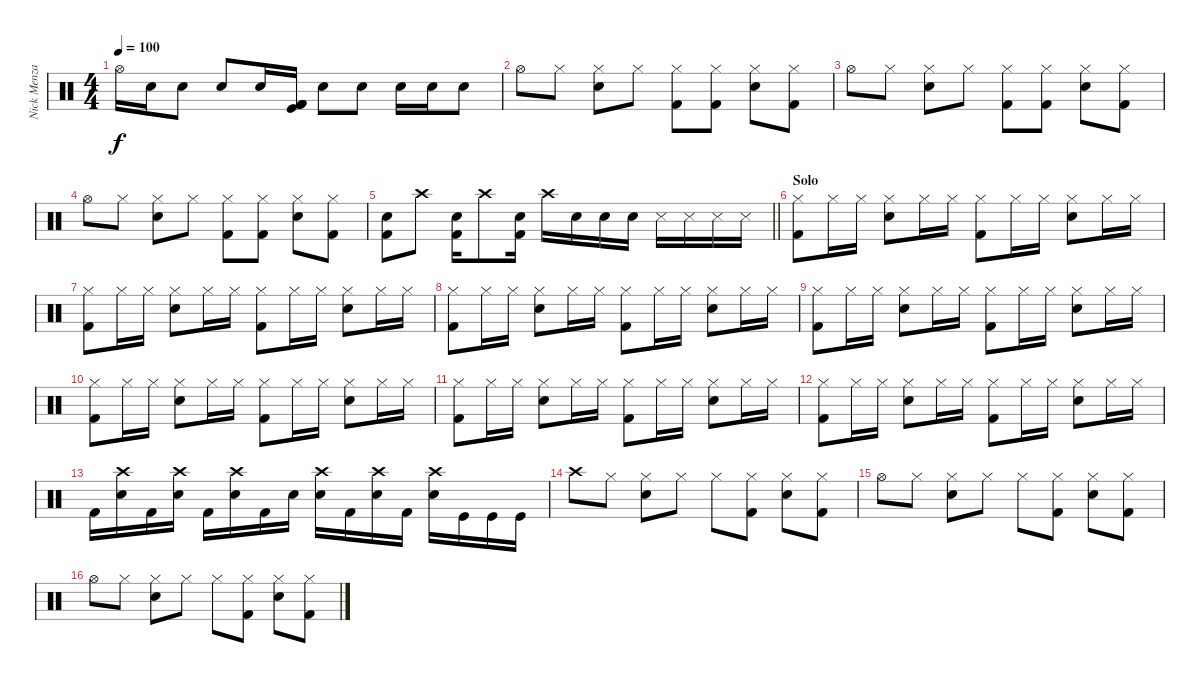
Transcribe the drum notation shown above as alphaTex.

\track ("Nick Menza" "Nick Menza") {instrument percussion}
\staff {score}
\articulation defaults
\ts (4 4)
\tempo 100
\clef neutral
\ks c "Hi-Hat (open)".16{dy f} "Snare (hit) 2".16 "Snare (hit) 2".8 "Snare (hit) 2".8 "Snare (hit) 2".16
("Kick (hit)" "Kick (hit) 2" "Kick (hit) 2" "Kick (hit) 2").16 "Snare (hit) 2".8 "Snare (hit) 2".8 "Snare (hit) 2".16 "Snare (hit) 2".16 "Snare (hit) 2".8 |
"Hi-Hat (open)".8 "Hi-Hat (closed)".8 ("Hi-Hat (closed)" "Snare (hit) 2").8 "Hi-Hat (closed)".8 ("Hi-Hat (closed)" "Kick (hit) 2").8 ("Hi-Hat (closed)" "Kick (hit) 2").8 ("Hi-Hat (closed)" "Snare (hit) 2").8 ("Hi-Hat (closed)" "Kick (hit) 2").8 |
"Hi-Hat (open)".8 "Hi-Hat (closed)".8 ("Hi-Hat (closed)" "Snare (hit) 2").8 "Hi-Hat (closed)".8 ("Hi-Hat (closed)" "Kick (hit) 2").8 ("Hi-Hat (closed)" "Kick (hit) 2").8 ("Hi-Hat (closed)" "Snare (hit) 2").8 ("Hi-Hat (closed)" "Kick (hit) 2").8 |
"Hi-Hat (open)".8 "Hi-Hat (closed)".8 ("Hi-Hat (closed)" "Snare (hit) 2").8 "Hi-Hat (closed)".8 ("Hi-Hat (closed)" "Kick (hit) 2").8 ("Hi-Hat (closed)" "Kick (hit) 2").8 ("Hi-Hat (closed)" "Snare (hit) 2").8 ("Hi-Hat (closed)" "Kick (hit) 2").8 |
\barLineRight lightlight
("Snare (hit) 2" "Kick (hit) 2").8 "Crash high (hit)".8 ("Snare (hit) 2" "Kick (hit) 2").16 "Crash high (hit)".8 ("Snare (hit) 2" "Kick (hit) 2").16 "Crash high (hit)".16 "Snare (hit) 2".16 "Snare (hit) 2".16 "Snare (hit) 2".16 "Snare (side stick) 3".16 "Snare (side stick) 3".16 "Snare (side stick) 3".16 "Snare (side stick) 3".16 |
\section ("" "Solo")
("Hi-Hat (closed)" "Kick (hit) 2").8 "Hi-Hat (closed)".16 "Hi-Hat (closed)".16 ("Hi-Hat (closed)" "Snare (hit) 2").8 "Hi-Hat (closed)".16 "Hi-Hat (closed)".16 ("Hi-Hat (closed)" "Kick (hit) 2").8 "Hi-Hat (closed)".16 "Hi-Hat (closed)".16 ("Hi-Hat (closed)" "Snare (hit) 2").8 "Hi-Hat (closed)".16 "Hi-Hat (closed)".16 |
("Hi-Hat (closed)" "Kick (hit) 2").8 "Hi-Hat (closed)".16 "Hi-Hat (closed)".16 ("Hi-Hat (closed)" "Snare (hit) 2").8 "Hi-Hat (closed)".16 "Hi-Hat (closed)".16 ("Hi-Hat (closed)" "Kick (hit) 2").8 "Hi-Hat (closed)".16 "Hi-Hat (closed)".16 ("Hi-Hat (closed)" "Snare (hit) 2").8 "Hi-Hat (closed)".16 "Hi-Hat (closed)".16 |
("Hi-Hat (closed)" "Kick (hit) 2").8 "Hi-Hat (closed)".16 "Hi-Hat (closed)".16 ("Hi-Hat (closed)" "Snare (hit) 2").8 "Hi-Hat (closed)".16 "Hi-Hat (closed)".16 ("Hi-Hat (closed)" "Kick (hit) 2").8 "Hi-Hat (closed)".16 "Hi-Hat (closed)".16 ("Hi-Hat (closed)" "Snare (hit) 2").8 "Hi-Hat (closed)".16 "Hi-Hat (closed)".16 |
("Hi-Hat (closed)" "Kick (hit) 2").8 "Hi-Hat (closed)".16 "Hi-Hat (closed)".16 ("Hi-Hat (closed)" "Snare (hit) 2").8 "Hi-Hat (closed)".16 "Hi-Hat (closed)".16 ("Hi-Hat (closed)" "Kick (hit) 2").8 "Hi-Hat (closed)".16 "Hi-Hat (closed)".16 ("Hi-Hat (closed)" "Snare (hit) 2").8 "Hi-Hat (closed)".16 "Hi-Hat (closed)".16 |
("Hi-Hat (closed)" "Kick (hit) 2").8 "Hi-Hat (closed)".16 "Hi-Hat (closed)".16 ("Hi-Hat (closed)" "Snare (hit) 2").8 "Hi-Hat (closed)".16 "Hi-Hat (closed)".16 ("Hi-Hat (closed)" "Kick (hit) 2").8 "Hi-Hat (closed)".16 "Hi-Hat (closed)".16 ("Hi-Hat (closed)" "Snare (hit) 2").8 "Hi-Hat (closed)".16 "Hi-Hat (closed)".16 |
("Hi-Hat (closed)" "Kick (hit) 2").8 "Hi-Hat (closed)".16 "Hi-Hat (closed)".16 ("Hi-Hat (closed)" "Snare (hit) 2").8 "Hi-Hat (closed)".16 "Hi-Hat (closed)".16 ("Hi-Hat (closed)" "Kick (hit) 2").8 "Hi-Hat (closed)".16 "Hi-Hat (closed)".16 ("Hi-Hat (closed)" "Snare (hit) 2").8 "Hi-Hat (closed)".16 "Hi-Hat (closed)".16 |
("Hi-Hat (closed)" "Kick (hit) 2").8 "Hi-Hat (closed)".16 "Hi-Hat (closed)".16 ("Hi-Hat (closed)" "Snare (hit) 2").8 "Hi-Hat (closed)".16 "Hi-Hat (closed)".16 ("Hi-Hat (closed)" "Kick (hit) 2").8 "Hi-Hat (closed)".16 "Hi-Hat (closed)".16 ("Hi-Hat (closed)" "Snare (hit) 2").8 "Hi-Hat (closed)".16 "Hi-Hat (closed)".16 |
"Kick (hit) 2".16 ("Crash high (hit)" "Snare (hit) 2").16 "Kick (hit) 2".16 ("Crash high (hit)" "Snare (hit) 2").16 "Kick (hit) 2".16 ("Crash high (hit)" "Snare (hit) 2").16 "Kick (hit) 2".16 "Snare (hit) 2".16 ("Crash high (hit)" "Snare (hit) 2").16 "Kick (hit) 2".16 ("Crash high (hit)" "Snare (hit) 2").16 "Kick (hit) 2".16 ("Crash high (hit)" "Snare (hit) 2").16 "Kick (hit)".16 "Kick (hit)".16 "Kick (hit)".16 |
"Crash high (hit)".8 "Hi-Hat (closed)".8 ("Hi-Hat (closed)" "Snare (hit) 2").8 "Hi-Hat (closed)".8 "Hi-Hat (closed)".8 ("Hi-Hat (closed)" "Kick (hit) 2").8 ("Hi-Hat (closed)" "Snare (hit) 2").8 ("Hi-Hat (closed)" "Kick (hit) 2").8 |
"Hi-Hat (open)".8 "Hi-Hat (closed)".8 ("Hi-Hat (closed)" "Snare (hit) 2").8 "Hi-Hat (closed)".8 "Hi-Hat (closed)".8 ("Hi-Hat (closed)" "Kick (hit) 2").8 ("Hi-Hat (closed)" "Snare (hit) 2").8 ("Hi-Hat (closed)" "Kick (hit) 2").8 |
"Hi-Hat (open)".8 "Hi-Hat (closed)".8 ("Hi-Hat (closed)" "Snare (hit) 2").8 "Hi-Hat (closed)".8 "Hi-Hat (closed)".8 ("Hi-Hat (closed)" "Kick (hit) 2").8 ("Hi-Hat (closed)" "Snare (hit) 2").8 ("Hi-Hat (closed)" "Kick (hit) 2").8
